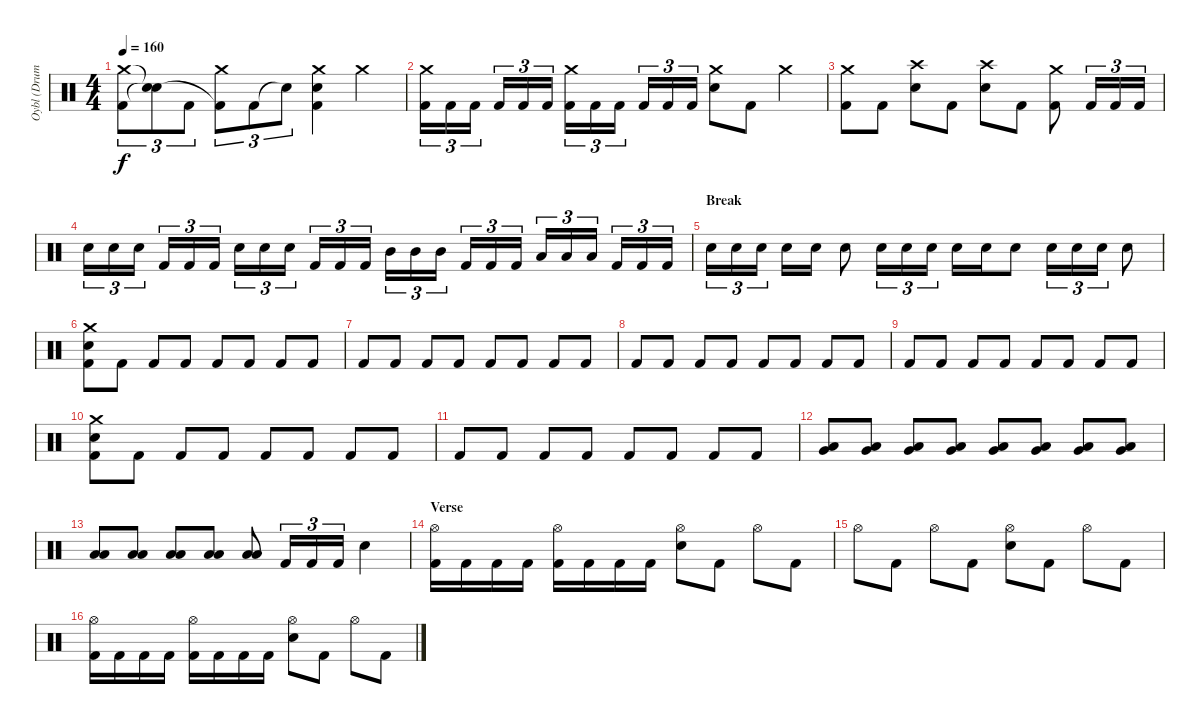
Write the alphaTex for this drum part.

\track ("Oybl (Drums)" "Oybl (Drum") {instrument percussion}
\staff {score}
\articulation defaults
\ts (4 4)
\tempo 160
\clef neutral
\ks c
("Crash medium (hit)" "Kick (hit) 2").8{tu (3 2) dy f} ("Snare (hit) 2"{t} "Snare (hit)"{t}).8{tu (3 2)} "Kick (hit) 2".8{tu (3 2)} ("Crash medium (hit)" "Kick (hit) 2"{t}).8{tu (3 2)} "Kick (hit) 2".8{tu (3 2)} "Snare (hit)"{t}.8{tu (3 2)} ("Crash medium (hit)" "Snare (hit) 2" "Kick (hit) 2").4 "Crash medium (hit)".4 |
("Crash medium (hit)" "Kick (hit) 2").16{tu (3 2)} "Kick (hit) 2".16{tu (3 2)} "Kick (hit) 2".16{tu (3 2)} "Kick (hit) 2".16{tu (3 2)} "Kick (hit) 2".16{tu (3 2)} "Kick (hit) 2".16{tu (3 2)} ("Crash medium (hit)" "Kick (hit) 2").16{tu (3 2)} "Kick (hit) 2".16{tu (3 2)} "Kick (hit) 2".16{tu (3 2)} "Kick (hit) 2".16{tu (3 2)} "Kick (hit) 2".16{tu (3 2)} "Kick (hit) 2".16{tu (3 2)} ("Crash medium (hit)" "Snare (hit) 2").8 "Kick (hit) 2".8 "Crash medium (hit)".4 |
("Crash medium (hit)" "Kick (hit) 2").8 "Kick (hit) 2".8 ("Crash high (hit)" "Snare (hit) 2").8 "Kick (hit) 2".8 ("Crash high (hit)" "Snare (hit) 2").8 "Kick (hit) 2".8 ("Crash medium (hit)" "Kick (hit) 2").8 "Kick (hit) 2".16{tu (3 2)} "Kick (hit) 2".16{tu (3 2)} "Kick (hit) 2".16{tu (3 2)} |
"Snare (hit) 2".16{tu (3 2)} "Snare (hit) 2".16{tu (3 2)} "Snare (hit) 2".16{tu (3 2)} "Kick (hit) 2".16{tu (3 2)} "Kick (hit) 2".16{tu (3 2)} "Kick (hit) 2".16{tu (3 2)} "Snare (hit) 2".16{tu (3 2)} "Snare (hit) 2".16{tu (3 2)} "Snare (hit) 2".16{tu (3 2)} "Kick (hit) 2".16{tu (3 2)} "Kick (hit) 2".16{tu (3 2)} "Kick (hit) 2".16{tu (3 2)} "Mid Tom (hit)".16{tu (3 2)} "Mid Tom (hit)".16{tu (3 2)} "Mid Tom (hit)".16{tu (3 2)} "Kick (hit) 2".16{tu (3 2)} "Kick (hit) 2".16{tu (3 2)} "Kick (hit) 2".16{tu (3 2)} "Low Tom (hit)".16{tu (3 2)} "Low Tom (hit)".16{tu (3 2)} "Low Tom (hit)".16{tu (3 2)} "Kick (hit) 2".16{tu (3 2)} "Kick (hit) 2".16{tu (3 2)} "Kick (hit) 2".16{tu (3 2)} |
\section ("" "Break")
"Snare (hit) 2".16{tu (3 2)} "Snare (hit) 2".16{tu (3 2)} "Snare (hit) 2".16{tu (3 2)} "Snare (hit) 2".16 "Snare (hit) 2".16 "Snare (hit) 2".8 "Snare (hit) 2".16{tu (3 2)} "Snare (hit) 2".16{tu (3 2)} "Snare (hit) 2".16{tu (3 2)} "Snare (hit) 2".16 "Snare (hit) 2".16 "Snare (hit) 2".8 "Snare (hit) 2".16{tu (3 2)} "Snare (hit) 2".16{tu (3 2)} "Snare (hit) 2".16{tu (3 2)} "Snare (hit) 2".8 |
("Crash medium (hit)" "Snare (hit) 2" "Kick (hit) 2").8 "Kick (hit) 2".8 "Kick (hit) 2".8 "Kick (hit) 2".8 "Kick (hit) 2".8 "Kick (hit) 2".8 "Kick (hit) 2".8 "Kick (hit) 2".8 |
"Kick (hit) 2".8 "Kick (hit) 2".8 "Kick (hit) 2".8 "Kick (hit) 2".8 "Kick (hit) 2".8 "Kick (hit) 2".8 "Kick (hit) 2".8 "Kick (hit) 2".8 |
"Kick (hit) 2".8 "Kick (hit) 2".8 "Kick (hit) 2".8 "Kick (hit) 2".8 "Kick (hit) 2".8 "Kick (hit) 2".8 "Kick (hit) 2".8 "Kick (hit) 2".8 |
"Kick (hit) 2".8 "Kick (hit) 2".8 "Kick (hit) 2".8 "Kick (hit) 2".8 "Kick (hit) 2".8 "Kick (hit) 2".8 "Kick (hit) 2".8 "Kick (hit) 2".8 |
("Crash medium (hit)" "Snare (hit) 2" "Kick (hit) 2").8 "Kick (hit) 2".8 "Kick (hit) 2".8 "Kick (hit) 2".8 "Kick (hit) 2".8 "Kick (hit) 2".8 "Kick (hit) 2".8 "Kick (hit) 2".8 |
"Kick (hit) 2".8 "Kick (hit) 2".8 "Kick (hit) 2".8 "Kick (hit) 2".8 "Kick (hit) 2".8 "Kick (hit) 2".8 "Kick (hit) 2".8 "Kick (hit) 2".8 |
("Low Tom (hit)" "Very Low Tom (hit)").8 ("Low Tom (hit)" "Very Low Tom (hit)").8 ("Low Tom (hit)" "Very Low Tom (hit)").8 ("Low Tom (hit)" "Very Low Tom (hit)").8 ("Low Tom (hit)" "Very Low Tom (hit)").8 ("Low Tom (hit)" "Very Low Tom (hit)").8 ("Low Tom (hit)" "Very Low Tom (hit)").8 ("Low Tom (hit)" "Very Low Tom (hit)").8 |
("Low Tom (hit)" "Low Floor Tom (hit)").8 ("Low Tom (hit)" "Low Floor Tom (hit)").8 ("Low Tom (hit)" "Low Floor Tom (hit)").8 ("Low Tom (hit)" "Low Floor Tom (hit)").8 ("Low Tom (hit)" "Low Floor Tom (hit)").8 "Kick (hit) 2".16{tu (3 2)} "Kick (hit) 2".16{tu (3 2)} "Kick (hit) 2".16{tu (3 2)} "Snare (hit) 2".4 |
\section ("" "Verse")
("Hi-Hat (open)" "Kick (hit) 2").16 "Kick (hit) 2".16 "Kick (hit) 2".16 "Kick (hit) 2".16 ("Hi-Hat (open)" "Kick (hit) 2").16 "Kick (hit) 2".16 "Kick (hit) 2".16 "Kick (hit) 2".16 ("Hi-Hat (open)" "Snare (hit) 2").8 "Kick (hit) 2".8 "Hi-Hat (open)".8 "Kick (hit) 2".8 |
"Hi-Hat (open)".8 "Kick (hit) 2".8 "Hi-Hat (open)".8 "Kick (hit) 2".8 ("Hi-Hat (open)" "Snare (hit) 2").8 "Kick (hit) 2".8 "Hi-Hat (open)".8 "Kick (hit) 2".8 |
("Hi-Hat (open)" "Kick (hit) 2").16 "Kick (hit) 2".16 "Kick (hit) 2".16 "Kick (hit) 2".16 ("Hi-Hat (open)" "Kick (hit) 2").16 "Kick (hit) 2".16 "Kick (hit) 2".16 "Kick (hit) 2".16 ("Hi-Hat (open)" "Snare (hit) 2").8 "Kick (hit) 2".8 "Hi-Hat (open)".8 "Kick (hit) 2".8
